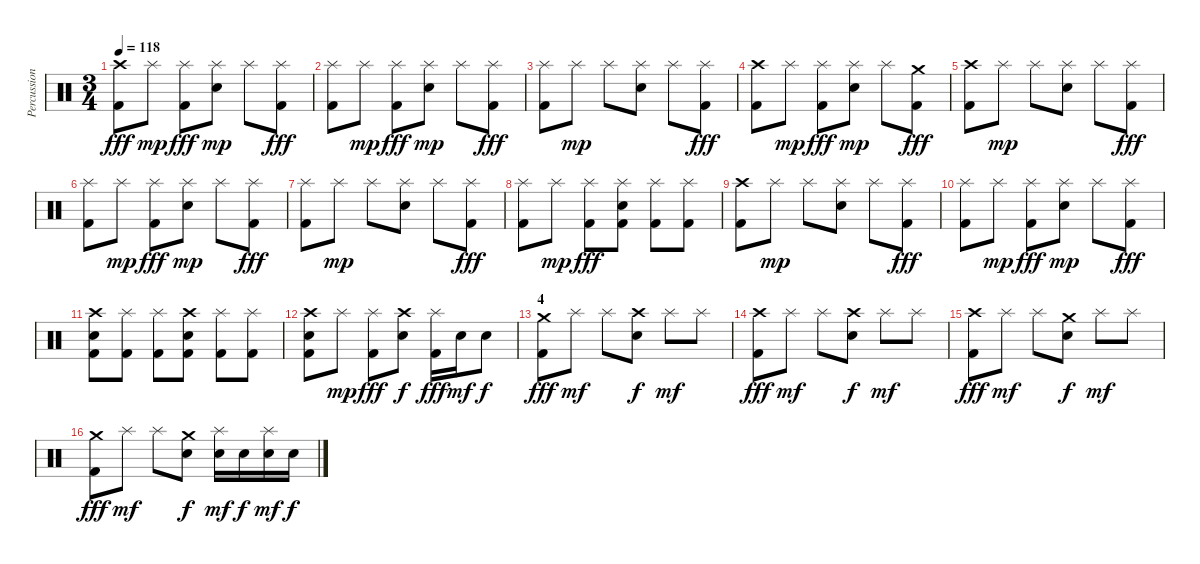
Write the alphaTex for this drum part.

\track ("Percussion" "Percussion") {instrument percussion}
\staff {score}
\articulation defaults
\ts (3 4)
\tempo 118
\clef neutral
\ks c
("Crash high (hit)" "Kick (hit) 2").8{dy fff} "Splash (hit)".8{dy mp} ("Splash (hit)" "Kick (hit) 2").8{dy fff} ("Splash (hit)" "Electric Snare (hit)").8{dy mp} "Splash (hit)".8 ("Splash (hit)" "Kick (hit) 2").8{dy fff} |
("Splash (hit)" "Kick (hit) 2").8 "Splash (hit)".8{dy mp} ("Splash (hit)" "Kick (hit) 2").8{dy fff} ("Splash (hit)" "Electric Snare (hit)").8{dy mp} "Splash (hit)".8 ("Splash (hit)" "Kick (hit) 2").8{dy fff} |
("Splash (hit)" "Kick (hit) 2").8 "Splash (hit)".8{dy mp} "Splash (hit)".8 ("Splash (hit)" "Electric Snare (hit)").8 "Splash (hit)".8 ("Splash (hit)" "Kick (hit) 2").8{dy fff} |
("Crash high (hit)" "Kick (hit) 2").8 "Splash (hit)".8{dy mp} ("Splash (hit)" "Kick (hit) 2").8{dy fff} ("Splash (hit)" "Electric Snare (hit)").8{dy mp} "Splash (hit)".8 ("Crash medium (hit)" "Kick (hit) 2").8{dy fff} |
\section ("" "")
("Crash high (hit)" "Kick (hit) 2").8 "Splash (hit)".8{dy mp} "Splash (hit)".8 ("Splash (hit)" "Electric Snare (hit)").8 "Splash (hit)".8 ("Splash (hit)" "Kick (hit) 2").8{dy fff} |
("Splash (hit)" "Kick (hit) 2").8 "Splash (hit)".8{dy mp} ("Splash (hit)" "Kick (hit) 2").8{dy fff} ("Splash (hit)" "Electric Snare (hit)").8{dy mp} "Splash (hit)".8 ("Splash (hit)" "Kick (hit) 2").8{dy fff} |
("Splash (hit)" "Kick (hit) 2").8 "Splash (hit)".8{dy mp} "Splash (hit)".8 ("Splash (hit)" "Electric Snare (hit)").8 "Splash (hit)".8 ("Splash (hit)" "Kick (hit) 2").8{dy fff} |
("Splash (hit)" "Kick (hit) 2").8 "Splash (hit)".8{dy mp} ("Splash (hit)" "Kick (hit) 2").8{dy fff} ("Splash (hit)" "Electric Snare (hit)" "Kick (hit) 2").8 ("Splash (hit)" "Kick (hit) 2").8 ("Splash (hit)" "Kick (hit) 2").8 |
("Crash high (hit)" "Kick (hit) 2").8 "Splash (hit)".8{dy mp} "Splash (hit)".8 ("Splash (hit)" "Electric Snare (hit)").8 "Splash (hit)".8 ("Splash (hit)" "Kick (hit) 2").8{dy fff} |
("Splash (hit)" "Kick (hit) 2").8 "Splash (hit)".8{dy mp} ("Splash (hit)" "Kick (hit) 2").8{dy fff} ("Splash (hit)" "Electric Snare (hit)").8{dy mp} "Splash (hit)".8 ("Splash (hit)" "Kick (hit) 2").8{dy fff} |
("Crash high (hit)" "Electric Snare (hit)" "Kick (hit) 2").8 ("Splash (hit)" "Kick (hit) 2").8 ("Splash (hit)" "Kick (hit) 2").8 ("Crash high (hit)" "Electric Snare (hit)" "Kick (hit) 2").8 ("Splash (hit)" "Kick (hit) 2").8 ("Splash (hit)" "Kick (hit) 2").8 |
("Crash high (hit)" "Electric Snare (hit)" "Kick (hit) 2").8 "Splash (hit)".8{dy mp} ("Splash (hit)" "Kick (hit) 2").8{dy fff} ("Crash high (hit)" "Electric Snare (hit)").8{dy f} ("Splash (hit)" "Kick (hit) 2").16{dy fff} "Electric Snare (hit)".16{dy mf} "Electric Snare (hit)".8{dy f} |
\section ("" "4")
("Crash medium (hit)" "Kick (hit) 2").8{dy fff} "Splash (hit)".8{dy mf} "Splash (hit)".8 ("Crash high (hit)" "Electric Snare (hit)").8{dy f} "Splash (hit)".8{dy mf} "Splash (hit)".8 |
("Crash high (hit)" "Kick (hit) 2").8{dy fff} "Splash (hit)".8{dy mf} "Splash (hit)".8 ("Crash high (hit)" "Electric Snare (hit)").8{dy f} "Splash (hit)".8{dy mf} "Splash (hit)".8 |
("Crash high (hit)" "Kick (hit) 2").8{dy fff} "Splash (hit)".8{dy mf} "Splash (hit)".8 ("Crash medium (hit)" "Electric Snare (hit)").8{dy f} "Splash (hit)".8{dy mf} "Splash (hit)".8 |
("Crash medium (hit)" "Kick (hit) 2").8{dy fff} "Splash (hit)".8{dy mf} "Splash (hit)".8 ("Crash medium (hit)" "Electric Snare (hit)").8{dy f} ("Splash (hit)" "Electric Snare (hit)").16{dy mf} "Electric Snare (hit)".16{dy f} ("Splash (hit)" "Electric Snare (hit)").16{dy mf} "Electric Snare (hit)".16{dy f}
